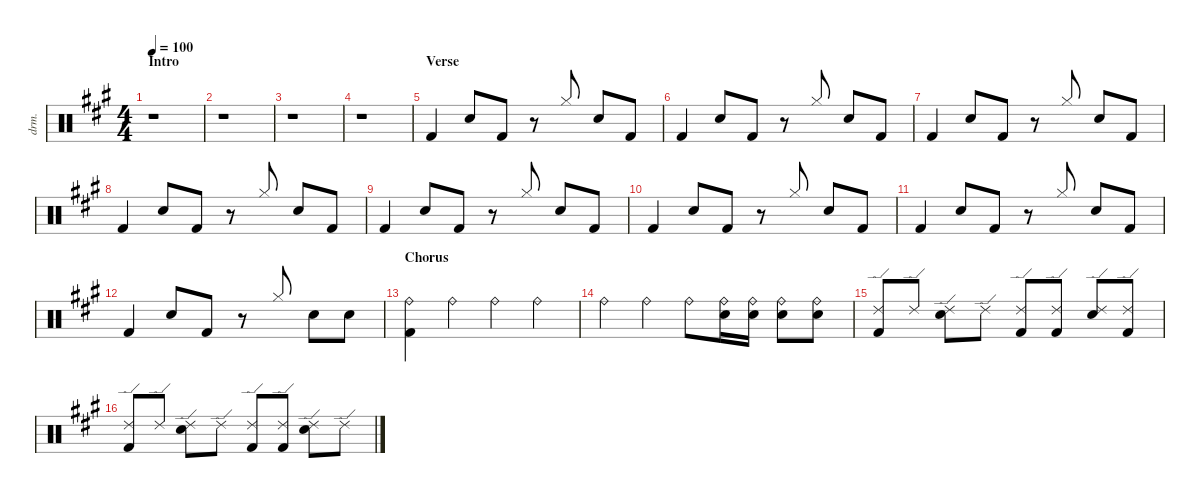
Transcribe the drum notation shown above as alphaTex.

\defaultSystemsLayout 4
\hideDynamics
\bracketExtendMode nobrackets
\otherSystemsTrackNameOrientation horizontal
\track ("Drums" "drm.") {instrument percussion}
\staff {score}
\articulation defaults
\ts (4 4)
\section ("" "Intro")
\tempo 100
\clef neutral
\ks a
r.1{dy f beam Down} |
r.1{beam Down} |
r.1{beam Down} |
r.1{beam Down} |
\section ("" "Verse")
"Kick (hit) 2"{acc forcenatural}.4{beam Up} "Snare (hit) 2"{acc forcenatural}.8{beam Up} "Kick (hit) 2"{acc forcenatural}.8{beam Up} r.8{beam Up} "Hi-Hat (closed)"{acc forcenatural}.8{beam Down} "Snare (hit) 2"{acc forcenatural}.8{beam Up} "Kick (hit) 2"{acc forcenatural}.8{beam Up} |
"Kick (hit) 2"{acc forcenatural}.4{beam Up} "Snare (hit) 2"{acc forcenatural}.8{beam Up} "Kick (hit) 2"{acc forcenatural}.8{beam Up} r.8{beam Up} "Hi-Hat (closed)"{acc forcenatural}.8{beam Down} "Snare (hit) 2"{acc forcenatural}.8{beam Up} "Kick (hit) 2"{acc forcenatural}.8{beam Up} |
"Kick (hit) 2"{acc forcenatural}.4{beam Up} "Snare (hit) 2"{acc forcenatural}.8{beam Up} "Kick (hit) 2"{acc forcenatural}.8{beam Up} r.8{beam Up} "Hi-Hat (closed)"{acc forcenatural}.8{beam Down} "Snare (hit) 2"{acc forcenatural}.8{beam Up} "Kick (hit) 2"{acc forcenatural}.8{beam Up} |
"Kick (hit) 2"{acc forcenatural}.4{beam Up} "Snare (hit) 2"{acc forcenatural}.8{beam Up} "Kick (hit) 2"{acc forcenatural}.8{beam Up} r.8{beam Up} "Hi-Hat (closed)"{acc forcenatural}.8{beam Down} "Snare (hit) 2"{acc forcenatural}.8{beam Up} "Kick (hit) 2"{acc forcenatural}.8{beam Up} |
"Kick (hit) 2"{acc forcenatural}.4{beam Up} "Snare (hit) 2"{acc forcenatural}.8{beam Up} "Kick (hit) 2"{acc forcenatural}.8{beam Up} r.8{beam Up} "Hi-Hat (closed)"{acc forcenatural}.8{beam Down} "Snare (hit) 2"{acc forcenatural}.8{beam Up} "Kick (hit) 2"{acc forcenatural}.8{beam Up} |
"Kick (hit) 2"{acc forcenatural}.4{beam Up} "Snare (hit) 2"{acc forcenatural}.8{beam Up} "Kick (hit) 2"{acc forcenatural}.8{beam Up} r.8{beam Up} "Hi-Hat (closed)"{acc forcenatural}.8{beam Down} "Snare (hit) 2"{acc forcenatural}.8{beam Up} "Kick (hit) 2"{acc forcenatural}.8{beam Up} |
"Kick (hit) 2"{acc forcenatural}.4{beam Up} "Snare (hit) 2"{acc forcenatural}.8{beam Up} "Kick (hit) 2"{acc forcenatural}.8{beam Up} r.8{beam Up} "Hi-Hat (closed)"{acc forcenatural}.8{beam Down} "Snare (hit) 2"{acc forcenatural}.8{beam Up} "Kick (hit) 2"{acc forcenatural}.8{beam Up} |
"Kick (hit) 2"{acc forcenatural}.4{beam Up} "Snare (hit) 2"{acc forcenatural}.8{beam Up} "Kick (hit) 2"{acc forcenatural}.8{beam Up} r.8{beam Up} "Hi-Hat (closed)"{acc forcenatural}.8{beam Down} "Snare (hit) 2"{acc forcenatural}.8{beam Down} "Snare (hit) 2"{acc forcenatural}.8{beam Down} |
\section ("" "Chorus")
("Ride (bell)"{acc forcenatural} "Kick (hit) 2"{acc forcenatural}).4{beam Down} "Ride (bell)"{acc forcenatural}.4{beam Down} "Ride (bell)"{acc forcenatural}.4{beam Down} "Ride (bell)"{acc forcenatural}.4{beam Down} |
"Ride (bell)"{acc forcenatural}.4{beam Down} "Ride (bell)"{acc forcenatural}.4{beam Down} "Ride (bell)"{acc forcenatural}.8{beam Down} ("Ride (bell)"{acc forcenatural} "Snare (hit) 2"{acc forcenatural}).16{beam Down} ("Ride (bell)"{acc forcenatural} "Snare (hit) 2"{acc forcenatural}).16{beam Down} ("Ride (bell)"{acc forcenatural} "Snare (hit) 2"{acc forcenatural}).8{beam Down} ("Ride (bell)"{acc forcenatural} "Snare (hit) 2"{acc forcenatural}).8{beam Down} |
("Ride (edge) 2"{acc forcenatural} "Kick (hit) 2"{acc forcenatural}).8{beam Up} "Ride (edge) 2"{acc forcenatural}.8{beam Up} ("Ride (edge) 2"{acc forcenatural} "Snare (hit) 2"{acc forcenatural}).8{beam Down} "Ride (edge) 2"{acc forcenatural}.8{beam Down} ("Ride (edge) 2"{acc forcenatural} "Kick (hit) 2"{acc forcenatural}).8{beam Up} ("Ride (edge) 2"{acc forcenatural} "Kick (hit) 2"{acc forcenatural}).8{beam Up} ("Ride (edge) 2"{acc forcenatural} "Snare (hit) 2"{acc forcenatural}).8{beam Up} ("Ride (edge) 2"{acc forcenatural} "Kick (hit) 2"{acc forcenatural}).8{beam Up} |
("Ride (edge) 2"{acc forcenatural} "Kick (hit) 2"{acc forcenatural}).8{beam Up} "Ride (edge) 2"{acc forcenatural}.8{beam Up} ("Ride (edge) 2"{acc forcenatural} "Snare (hit) 2"{acc forcenatural}).8{beam Down} "Ride (edge) 2"{acc forcenatural}.8{beam Down} ("Ride (edge) 2"{acc forcenatural} "Kick (hit) 2"{acc forcenatural}).8{beam Up} ("Ride (edge) 2"{acc forcenatural} "Kick (hit) 2"{acc forcenatural}).8{beam Up} ("Ride (edge) 2"{acc forcenatural} "Snare (hit) 2"{acc forcenatural}).8{beam Down} "Ride (edge) 2"{acc forcenatural}.8{beam Down}
